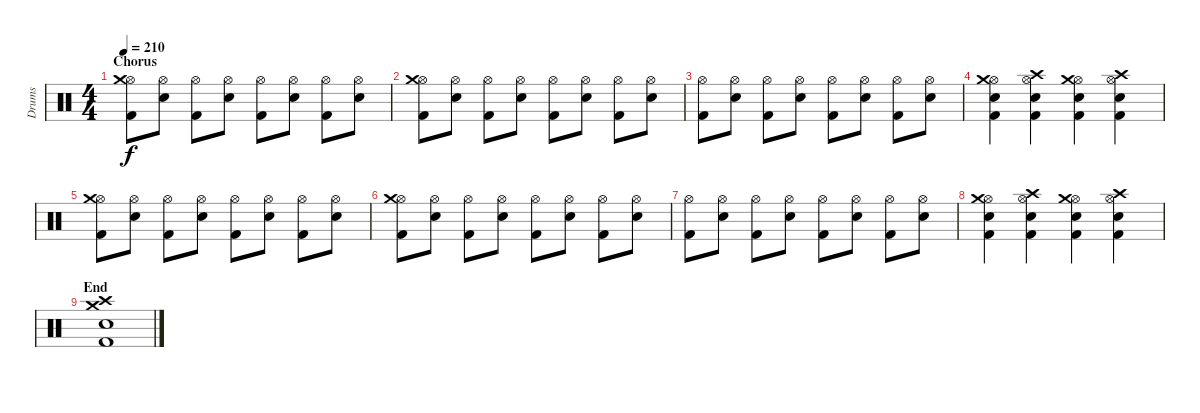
\track ("Drums" "Drums") {instrument percussion}
\staff {score}
\articulation defaults
\ts (4 4)
\section ("" "Chorus")
\tempo 210
\clef neutral
\ks c
("Hi-Hat (open)" "Crash medium (hit)" "Kick (hit) 2").8{dy f} ("Hi-Hat (open)" "Electric Snare (hit)").8 ("Hi-Hat (open)" "Kick (hit) 2").8 ("Hi-Hat (open)" "Electric Snare (hit)").8 ("Hi-Hat (open)" "Kick (hit) 2").8 ("Hi-Hat (open)" "Electric Snare (hit)").8 ("Hi-Hat (open)" "Kick (hit) 2").8 ("Hi-Hat (open)" "Electric Snare (hit)").8 |
("Hi-Hat (open)" "Crash medium (hit)" "Kick (hit) 2").8 ("Hi-Hat (open)" "Electric Snare (hit)").8 ("Hi-Hat (open)" "Kick (hit) 2").8 ("Hi-Hat (open)" "Electric Snare (hit)").8 ("Hi-Hat (open)" "Kick (hit) 2").8 ("Hi-Hat (open)" "Electric Snare (hit)").8 ("Hi-Hat (open)" "Kick (hit) 2").8 ("Hi-Hat (open)" "Electric Snare (hit)").8 |
("Hi-Hat (open)" "Kick (hit) 2").8 ("Hi-Hat (open)" "Electric Snare (hit)").8 ("Hi-Hat (open)" "Kick (hit) 2").8 ("Hi-Hat (open)" "Electric Snare (hit)").8 ("Hi-Hat (open)" "Kick (hit) 2").8 ("Hi-Hat (open)" "Electric Snare (hit)").8 ("Hi-Hat (open)" "Kick (hit) 2").8 ("Hi-Hat (open)" "Electric Snare (hit)").8 |
("Hi-Hat (open)" "Crash medium (hit)" "Electric Snare (hit)" "Kick (hit) 2").4 ("Hi-Hat (open)" "Crash high (hit)" "Electric Snare (hit)" "Kick (hit) 2").4 ("Hi-Hat (open)" "Crash medium (hit)" "Electric Snare (hit)" "Kick (hit) 2").4 ("Hi-Hat (open)" "Crash high (hit)" "Electric Snare (hit)" "Kick (hit) 2").4 |
("Hi-Hat (open)" "Crash medium (hit)" "Kick (hit) 2").8 ("Hi-Hat (open)" "Electric Snare (hit)").8 ("Hi-Hat (open)" "Kick (hit) 2").8 ("Hi-Hat (open)" "Electric Snare (hit)").8 ("Hi-Hat (open)" "Kick (hit) 2").8 ("Hi-Hat (open)" "Electric Snare (hit)").8 ("Hi-Hat (open)" "Kick (hit) 2").8 ("Hi-Hat (open)" "Electric Snare (hit)").8 |
("Hi-Hat (open)" "Crash medium (hit)" "Kick (hit) 2").8 ("Hi-Hat (open)" "Electric Snare (hit)").8 ("Hi-Hat (open)" "Kick (hit) 2").8 ("Hi-Hat (open)" "Electric Snare (hit)").8 ("Hi-Hat (open)" "Kick (hit) 2").8 ("Hi-Hat (open)" "Electric Snare (hit)").8 ("Hi-Hat (open)" "Kick (hit) 2").8 ("Hi-Hat (open)" "Electric Snare (hit)").8 |
("Hi-Hat (open)" "Kick (hit) 2").8 ("Hi-Hat (open)" "Electric Snare (hit)").8 ("Hi-Hat (open)" "Kick (hit) 2").8 ("Hi-Hat (open)" "Electric Snare (hit)").8 ("Hi-Hat (open)" "Kick (hit) 2").8 ("Hi-Hat (open)" "Electric Snare (hit)").8 ("Hi-Hat (open)" "Kick (hit) 2").8 ("Hi-Hat (open)" "Electric Snare (hit)").8 |
("Hi-Hat (open)" "Crash medium (hit)" "Electric Snare (hit)" "Kick (hit) 2").4 ("Hi-Hat (open)" "Crash high (hit)" "Electric Snare (hit)" "Kick (hit) 2").4 ("Hi-Hat (open)" "Crash medium (hit)" "Electric Snare (hit)" "Kick (hit) 2").4 ("Hi-Hat (open)" "Crash high (hit)" "Electric Snare (hit)" "Kick (hit) 2").4 |
\section ("" "End")
("Crash medium (hit)" "Crash high (hit)" "Electric Snare (hit)" "Kick (hit) 2").1
